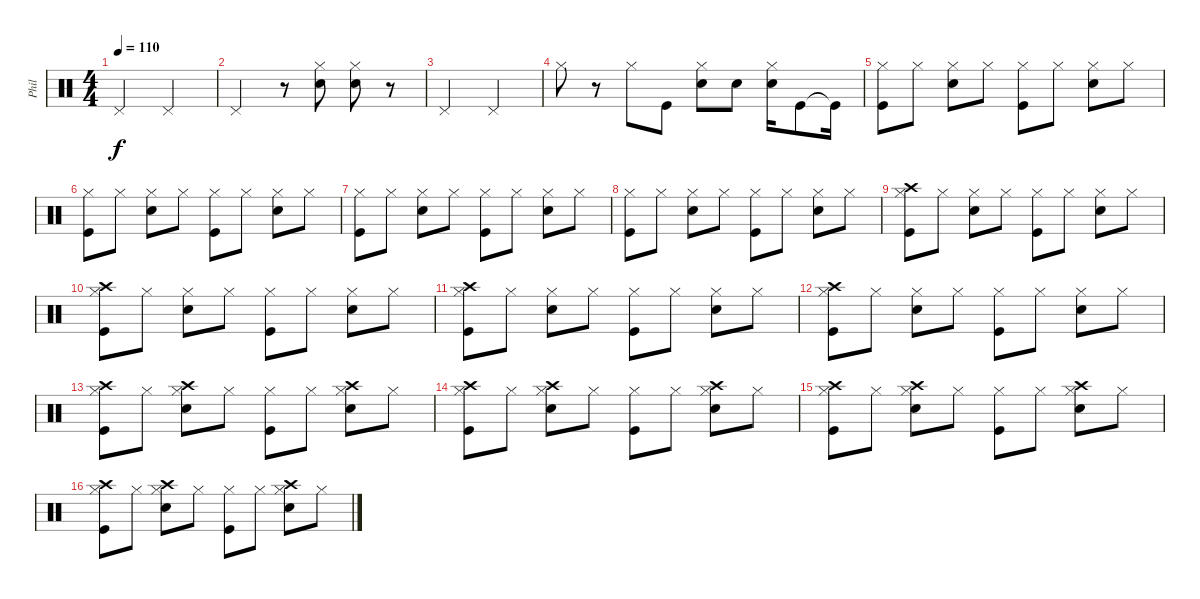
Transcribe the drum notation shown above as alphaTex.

\track ("Phil" "Phil") {instrument percussion}
\staff {score}
\articulation defaults
\ts (4 4)
\tempo 110
\clef neutral
\ks c "Pedal Hi-Hat (hit)".2{dy f} "Pedal Hi-Hat (hit)".2
|
"Pedal Hi-Hat (hit)".2 r.8 ("Hi-Hat (closed)" "Snare (hit) 2").8 ("Hi-Hat (closed)" "Snare (hit) 2").8 r.8 |
"Pedal Hi-Hat (hit)".2 "Pedal Hi-Hat (hit)".2 |
"Hi-Hat (closed)".8 r.8 "Hi-Hat (closed)".8 "Kick (hit)".8 ("Hi-Hat (closed)" "Snare (hit) 2").8 "Snare (hit) 2".8 ("Hi-Hat (closed)" "Snare (hit) 2").16 "Kick (hit)".8 "Kick (hit)"{t}.16 |
("Hi-Hat (closed)" "Kick (hit)").8 "Hi-Hat (closed)".8 ("Hi-Hat (closed)" "Snare (hit) 2").8 "Hi-Hat (closed)".8 ("Hi-Hat (closed)" "Kick (hit)").8 "Hi-Hat (closed)".8 ("Hi-Hat (closed)" "Snare (hit) 2").8 "Hi-Hat (closed)".8 |
("Hi-Hat (closed)" "Kick (hit)").8 "Hi-Hat (closed)".8 ("Hi-Hat (closed)" "Snare (hit) 2").8 "Hi-Hat (closed)".8 ("Hi-Hat (closed)" "Kick (hit)").8 "Hi-Hat (closed)".8 ("Hi-Hat (closed)" "Snare (hit) 2").8 "Hi-Hat (closed)".8 |
("Hi-Hat (closed)" "Kick (hit)").8 "Hi-Hat (closed)".8 ("Hi-Hat (closed)" "Snare (hit) 2").8 "Hi-Hat (closed)".8 ("Hi-Hat (closed)" "Kick (hit)").8 "Hi-Hat (closed)".8 ("Hi-Hat (closed)" "Snare (hit) 2").8 "Hi-Hat (closed)".8 |
("Hi-Hat (closed)" "Kick (hit)").8 "Hi-Hat (closed)".8 ("Hi-Hat (closed)" "Snare (hit) 2").8 "Hi-Hat (closed)".8 ("Hi-Hat (closed)" "Kick (hit)").8 "Hi-Hat (closed)".8 ("Hi-Hat (closed)" "Snare (hit) 2").8 "Hi-Hat (closed)".8 |
("Hi-Hat (closed)" "Crash high (hit)" "Kick (hit)").8 "Hi-Hat (closed)".8 ("Hi-Hat (closed)" "Snare (hit) 2").8 "Hi-Hat (closed)".8 ("Hi-Hat (closed)" "Kick (hit)").8 "Hi-Hat (closed)".8 ("Hi-Hat (closed)" "Snare (hit) 2").8 "Hi-Hat (closed)".8 |
("Hi-Hat (closed)" "Crash high (hit)" "Kick (hit)").8 "Hi-Hat (closed)".8 ("Hi-Hat (closed)" "Snare (hit) 2").8 "Hi-Hat (closed)".8 ("Hi-Hat (closed)" "Kick (hit)").8 "Hi-Hat (closed)".8 ("Hi-Hat (closed)" "Snare (hit) 2").8 "Hi-Hat (closed)".8 |
("Hi-Hat (closed)" "Crash high (hit)" "Kick (hit)").8 "Hi-Hat (closed)".8 ("Hi-Hat (closed)" "Snare (hit) 2").8 "Hi-Hat (closed)".8 ("Hi-Hat (closed)" "Kick (hit)").8 "Hi-Hat (closed)".8 ("Hi-Hat (closed)" "Snare (hit) 2").8 "Hi-Hat (closed)".8 |
("Hi-Hat (closed)" "Crash high (hit)" "Kick (hit)").8 "Hi-Hat (closed)".8 ("Hi-Hat (closed)" "Snare (hit) 2").8 "Hi-Hat (closed)".8 ("Hi-Hat (closed)" "Kick (hit)").8 "Hi-Hat (closed)".8 ("Hi-Hat (closed)" "Snare (hit) 2").8 "Hi-Hat (closed)".8 |
("Hi-Hat (closed)" "Crash high (hit)" "Kick (hit)").8 "Hi-Hat (closed)".8 ("Hi-Hat (closed)" "Crash high (hit)" "Snare (hit) 2").8 "Hi-Hat (closed)".8 ("Hi-Hat (closed)" "Kick (hit)").8 "Hi-Hat (closed)".8 ("Hi-Hat (closed)" "Crash high (hit)" "Snare (hit) 2").8 "Hi-Hat (closed)".8 |
("Hi-Hat (closed)" "Crash high (hit)" "Kick (hit)").8 "Hi-Hat (closed)".8 ("Hi-Hat (closed)" "Crash high (hit)" "Snare (hit) 2").8 "Hi-Hat (closed)".8 ("Hi-Hat (closed)" "Kick (hit)").8 "Hi-Hat (closed)".8 ("Hi-Hat (closed)" "Crash high (hit)" "Snare (hit) 2").8 "Hi-Hat (closed)".8 |
("Hi-Hat (closed)" "Crash high (hit)" "Kick (hit)").8 "Hi-Hat (closed)".8 ("Hi-Hat (closed)" "Crash high (hit)" "Snare (hit) 2").8 "Hi-Hat (closed)".8 ("Hi-Hat (closed)" "Kick (hit)").8 "Hi-Hat (closed)".8 ("Hi-Hat (closed)" "Crash high (hit)" "Snare (hit) 2").8 "Hi-Hat (closed)".8 |
("Hi-Hat (closed)" "Crash high (hit)" "Kick (hit)").8 "Hi-Hat (closed)".8 ("Hi-Hat (closed)" "Crash high (hit)" "Snare (hit) 2").8 "Hi-Hat (closed)".8 ("Hi-Hat (closed)" "Kick (hit)").8 "Hi-Hat (closed)".8 ("Hi-Hat (closed)" "Crash high (hit)" "Snare (hit) 2").8 "Hi-Hat (closed)".8
